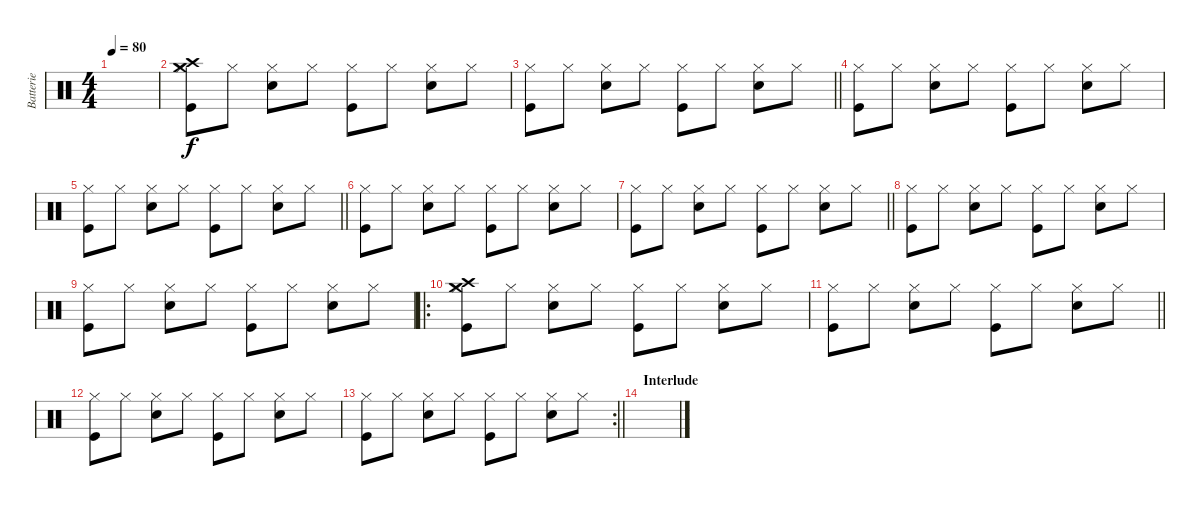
\track ("Batterie" "Batterie") {instrument percussion}
\staff {score}
\articulation defaults
\ts (4 4)
\tempo 80
\clef neutral
\ks c
|
("Kick (hit)" "Hi-Hat (closed)" "Crash medium (hit)" "Crash high (hit)").8 "Hi-Hat (closed)".8 ("Snare (hit) 2" "Hi-Hat (closed)").8 "Hi-Hat (closed)".8 ("Kick (hit)" "Hi-Hat (closed)").8 "Hi-Hat (closed)".8 ("Snare (hit) 2" "Hi-Hat (closed)").8 "Hi-Hat (closed)".8 |
\barLineRight lightlight
("Kick (hit)" "Hi-Hat (closed)").8 "Hi-Hat (closed)".8 ("Snare (hit) 2" "Hi-Hat (closed)").8 "Hi-Hat (closed)".8 ("Kick (hit)" "Hi-Hat (closed)").8 "Hi-Hat (closed)".8 ("Snare (hit) 2" "Hi-Hat (closed)").8 "Hi-Hat (closed)".8 |
("Kick (hit)" "Hi-Hat (closed)").8 "Hi-Hat (closed)".8 ("Snare (hit) 2" "Hi-Hat (closed)").8 "Hi-Hat (closed)".8 ("Kick (hit)" "Hi-Hat (closed)").8 "Hi-Hat (closed)".8 ("Snare (hit) 2" "Hi-Hat (closed)").8 "Hi-Hat (closed)".8 |
\barLineRight lightlight
("Kick (hit)" "Hi-Hat (closed)").8 "Hi-Hat (closed)".8 ("Snare (hit) 2" "Hi-Hat (closed)").8 "Hi-Hat (closed)".8 ("Kick (hit)" "Hi-Hat (closed)").8 "Hi-Hat (closed)".8 ("Snare (hit) 2" "Hi-Hat (closed)").8 "Hi-Hat (closed)".8 |
("Kick (hit)" "Hi-Hat (closed)").8 "Hi-Hat (closed)".8 ("Snare (hit) 2" "Hi-Hat (closed)").8 "Hi-Hat (closed)".8 ("Kick (hit)" "Hi-Hat (closed)").8 "Hi-Hat (closed)".8 ("Snare (hit) 2" "Hi-Hat (closed)").8 "Hi-Hat (closed)".8 |
\barLineRight lightlight
("Kick (hit)" "Hi-Hat (closed)").8 "Hi-Hat (closed)".8 ("Snare (hit) 2" "Hi-Hat (closed)").8 "Hi-Hat (closed)".8 ("Kick (hit)" "Hi-Hat (closed)").8 "Hi-Hat (closed)".8 ("Snare (hit) 2" "Hi-Hat (closed)").8 "Hi-Hat (closed)".8 |
("Kick (hit)" "Hi-Hat (closed)").8 "Hi-Hat (closed)".8 ("Snare (hit) 2" "Hi-Hat (closed)").8 "Hi-Hat (closed)".8 ("Kick (hit)" "Hi-Hat (closed)").8 "Hi-Hat (closed)".8 ("Snare (hit) 2" "Hi-Hat (closed)").8 "Hi-Hat (closed)".8 |
("Kick (hit)" "Hi-Hat (closed)").8 "Hi-Hat (closed)".8 ("Snare (hit) 2" "Hi-Hat (closed)").8 "Hi-Hat (closed)".8 ("Kick (hit)" "Hi-Hat (closed)").8 "Hi-Hat (closed)".8 ("Snare (hit) 2" "Hi-Hat (closed)").8 "Hi-Hat (closed)".8 |
\ro
("Kick (hit)" "Hi-Hat (closed)" "Crash medium (hit)" "Crash high (hit)").8 "Hi-Hat (closed)".8 ("Snare (hit) 2" "Hi-Hat (closed)").8 "Hi-Hat (closed)".8 ("Kick (hit)" "Hi-Hat (closed)").8 "Hi-Hat (closed)".8 ("Snare (hit) 2" "Hi-Hat (closed)").8 "Hi-Hat (closed)".8 |
\barLineRight lightlight
("Kick (hit)" "Hi-Hat (closed)").8 "Hi-Hat (closed)".8 ("Snare (hit) 2" "Hi-Hat (closed)").8 "Hi-Hat (closed)".8 ("Kick (hit)" "Hi-Hat (closed)").8 "Hi-Hat (closed)".8 ("Snare (hit) 2" "Hi-Hat (closed)").8 "Hi-Hat (closed)".8 |
("Kick (hit)" "Hi-Hat (closed)").8 "Hi-Hat (closed)".8 ("Snare (hit) 2" "Hi-Hat (closed)").8 "Hi-Hat (closed)".8 ("Kick (hit)" "Hi-Hat (closed)").8 "Hi-Hat (closed)".8 ("Snare (hit) 2" "Hi-Hat (closed)").8 "Hi-Hat (closed)".8 |
\rc 2
\barLineRight lightlight
("Kick (hit)" "Hi-Hat (closed)").8 "Hi-Hat (closed)".8 ("Snare (hit) 2" "Hi-Hat (closed)").8 "Hi-Hat (closed)".8 ("Kick (hit)" "Hi-Hat (closed)").8 "Hi-Hat (closed)".8 ("Snare (hit) 2" "Hi-Hat (closed)").8 "Hi-Hat (closed)".8 |
\section ("" "Interlude")
